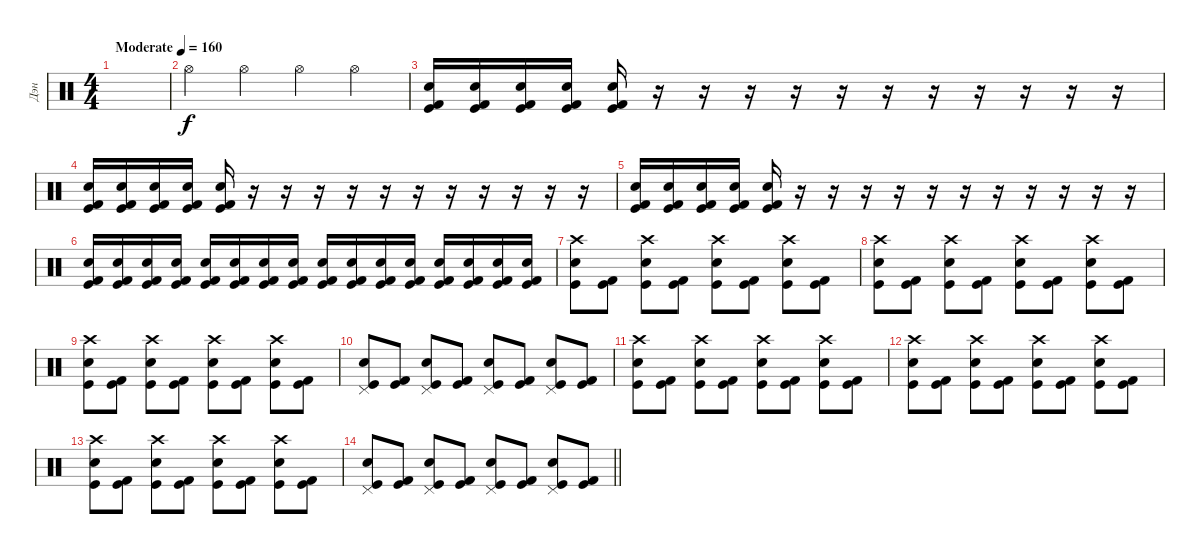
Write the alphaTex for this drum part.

\track ("Дэн" "Дэн") {instrument percussion}
\staff {score}
\articulation defaults
\ts (4 4)
\tempo (160 "Moderate")
\clef neutral
\ks c
|
"Hi-Hat (open)".4 "Hi-Hat (open)".4 "Hi-Hat (open)".4 "Hi-Hat (open)".4 |
("Electric Snare (hit)" "Kick (hit)" "Kick (hit) 2").16{dy f} ("Electric Snare (hit)" "Kick (hit)" "Kick (hit) 2").16 ("Electric Snare (hit)" "Kick (hit)" "Kick (hit) 2").16 ("Electric Snare (hit)" "Kick (hit)" "Kick (hit) 2").16 ("Electric Snare (hit)" "Kick (hit)" "Kick (hit) 2").16 r.16 r.16 r.16 r.16 r.16 r.16 r.16 r.16 r.16 r.16 r.16 |
("Electric Snare (hit)" "Kick (hit)" "Kick (hit) 2").16 ("Electric Snare (hit)" "Kick (hit)" "Kick (hit) 2").16 ("Electric Snare (hit)" "Kick (hit)" "Kick (hit) 2").16 ("Electric Snare (hit)" "Kick (hit)" "Kick (hit) 2").16 ("Electric Snare (hit)" "Kick (hit)" "Kick (hit) 2").16 r.16 r.16 r.16 r.16 r.16 r.16 r.16 r.16 r.16 r.16 r.16 |
("Electric Snare (hit)" "Kick (hit)" "Kick (hit) 2").16 ("Electric Snare (hit)" "Kick (hit)" "Kick (hit) 2").16 ("Electric Snare (hit)" "Kick (hit)" "Kick (hit) 2").16 ("Electric Snare (hit)" "Kick (hit)" "Kick (hit) 2").16 ("Electric Snare (hit)" "Kick (hit)" "Kick (hit) 2").16 r.16 r.16 r.16 r.16 r.16 r.16 r.16 r.16 r.16 r.16 r.16 |
("Electric Snare (hit)" "Kick (hit)" "Kick (hit) 2").16 ("Electric Snare (hit)" "Kick (hit)" "Kick (hit) 2").16 ("Electric Snare (hit)" "Kick (hit)" "Kick (hit) 2").16 ("Electric Snare (hit)" "Kick (hit)" "Kick (hit) 2").16 ("Electric Snare (hit)" "Kick (hit)" "Kick (hit) 2").16 ("Electric Snare (hit)" "Kick (hit)" "Kick (hit) 2").16 ("Electric Snare (hit)" "Kick (hit)" "Kick (hit) 2").16 ("Electric Snare (hit)" "Kick (hit)" "Kick (hit) 2").16 ("Electric Snare (hit)" "Kick (hit)" "Kick (hit) 2").16 ("Electric Snare (hit)" "Kick (hit)" "Kick (hit) 2").16 ("Electric Snare (hit)" "Kick (hit)" "Kick (hit) 2").16 ("Electric Snare (hit)" "Kick (hit)" "Kick (hit) 2").16 ("Electric Snare (hit)" "Kick (hit)" "Kick (hit) 2").16 ("Electric Snare (hit)" "Kick (hit)" "Kick (hit) 2").16 ("Electric Snare (hit)" "Kick (hit)" "Kick (hit) 2").16 ("Electric Snare (hit)" "Kick (hit)" "Kick (hit) 2").16 |
("Electric Snare (hit)" "Kick (hit)" "Crash high (hit)").8 ("Kick (hit)" "Kick (hit) 2").8 ("Electric Snare (hit)" "Kick (hit)" "Crash high (hit)").8 ("Kick (hit)" "Kick (hit) 2").8 ("Electric Snare (hit)" "Kick (hit)" "Crash high (hit)").8 ("Kick (hit)" "Kick (hit) 2").8 ("Electric Snare (hit)" "Kick (hit)" "Crash high (hit)").8 ("Kick (hit)" "Kick (hit) 2").8 |
("Electric Snare (hit)" "Kick (hit)" "Crash high (hit)").8 ("Kick (hit)" "Kick (hit) 2").8 ("Electric Snare (hit)" "Kick (hit)" "Crash high (hit)").8 ("Kick (hit)" "Kick (hit) 2").8 ("Electric Snare (hit)" "Kick (hit)" "Crash high (hit)").8 ("Kick (hit)" "Kick (hit) 2").8 ("Electric Snare (hit)" "Kick (hit)" "Crash high (hit)").8 ("Kick (hit)" "Kick (hit) 2").8 |
("Electric Snare (hit)" "Kick (hit)" "Crash high (hit)").8 ("Kick (hit)" "Kick (hit) 2").8 ("Electric Snare (hit)" "Kick (hit)" "Crash high (hit)").8 ("Kick (hit)" "Kick (hit) 2").8 ("Electric Snare (hit)" "Kick (hit)" "Crash high (hit)").8 ("Kick (hit)" "Kick (hit) 2").8 ("Electric Snare (hit)" "Kick (hit)" "Crash high (hit)").8 ("Kick (hit)" "Kick (hit) 2").8 |
("Pedal Hi-Hat (hit)" "Electric Snare (hit)" "Kick (hit)").8 ("Kick (hit)" "Kick (hit) 2").8 ("Pedal Hi-Hat (hit)" "Electric Snare (hit)" "Kick (hit)").8 ("Kick (hit)" "Kick (hit) 2").8 ("Pedal Hi-Hat (hit)" "Electric Snare (hit)" "Kick (hit)").8 ("Kick (hit)" "Kick (hit) 2").8 ("Pedal Hi-Hat (hit)" "Electric Snare (hit)" "Kick (hit)").8 ("Kick (hit)" "Kick (hit) 2").8 |
("Electric Snare (hit)" "Kick (hit)" "Crash high (hit)").8 ("Kick (hit)" "Kick (hit) 2").8 ("Electric Snare (hit)" "Kick (hit)" "Crash high (hit)").8 ("Kick (hit)" "Kick (hit) 2").8 ("Electric Snare (hit)" "Kick (hit)" "Crash high (hit)").8 ("Kick (hit)" "Kick (hit) 2").8 ("Electric Snare (hit)" "Kick (hit)" "Crash high (hit)").8 ("Kick (hit)" "Kick (hit) 2").8 |
("Electric Snare (hit)" "Kick (hit)" "Crash high (hit)").8 ("Kick (hit)" "Kick (hit) 2").8 ("Electric Snare (hit)" "Kick (hit)" "Crash high (hit)").8 ("Kick (hit)" "Kick (hit) 2").8 ("Electric Snare (hit)" "Kick (hit)" "Crash high (hit)").8 ("Kick (hit)" "Kick (hit) 2").8 ("Electric Snare (hit)" "Kick (hit)" "Crash high (hit)").8 ("Kick (hit)" "Kick (hit) 2").8 |
("Electric Snare (hit)" "Kick (hit)" "Crash high (hit)").8 ("Kick (hit)" "Kick (hit) 2").8 ("Electric Snare (hit)" "Kick (hit)" "Crash high (hit)").8 ("Kick (hit)" "Kick (hit) 2").8 ("Electric Snare (hit)" "Kick (hit)" "Crash high (hit)").8 ("Kick (hit)" "Kick (hit) 2").8 ("Electric Snare (hit)" "Kick (hit)" "Crash high (hit)").8 ("Kick (hit)" "Kick (hit) 2").8 |
\barLineRight lightlight
("Pedal Hi-Hat (hit)" "Electric Snare (hit)" "Kick (hit)").8 ("Kick (hit)" "Kick (hit) 2").8 ("Pedal Hi-Hat (hit)" "Electric Snare (hit)" "Kick (hit)").8 ("Kick (hit)" "Kick (hit) 2").8 ("Pedal Hi-Hat (hit)" "Electric Snare (hit)" "Kick (hit)").8 ("Kick (hit)" "Kick (hit) 2").8 ("Pedal Hi-Hat (hit)" "Electric Snare (hit)" "Kick (hit)").8 ("Kick (hit)" "Kick (hit) 2").8
